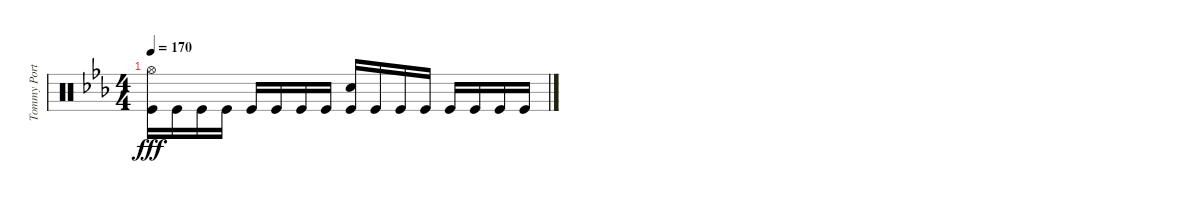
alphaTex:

\track ("Tommy Portimo (Percussion)" "Tommy Port") {instrument percussion}
\staff {score}
\articulation defaults
\ts (4 4)
\tempo 170
\clef neutral
\ks eb
("Hi-Hat (open)" "Kick (hit)").16{dy fff} "Kick (hit)".16 "Kick (hit)".16 "Kick (hit)".16 "Kick (hit)".16 "Kick (hit)".16 "Kick (hit)".16 "Kick (hit)".16 ("Electric Snare (hit)" "Kick (hit)").16 "Kick (hit)".16 "Kick (hit)".16 "Kick (hit)".16 "Kick (hit)".16 "Kick (hit)".16 "Kick (hit)".16 "Kick (hit)".16
